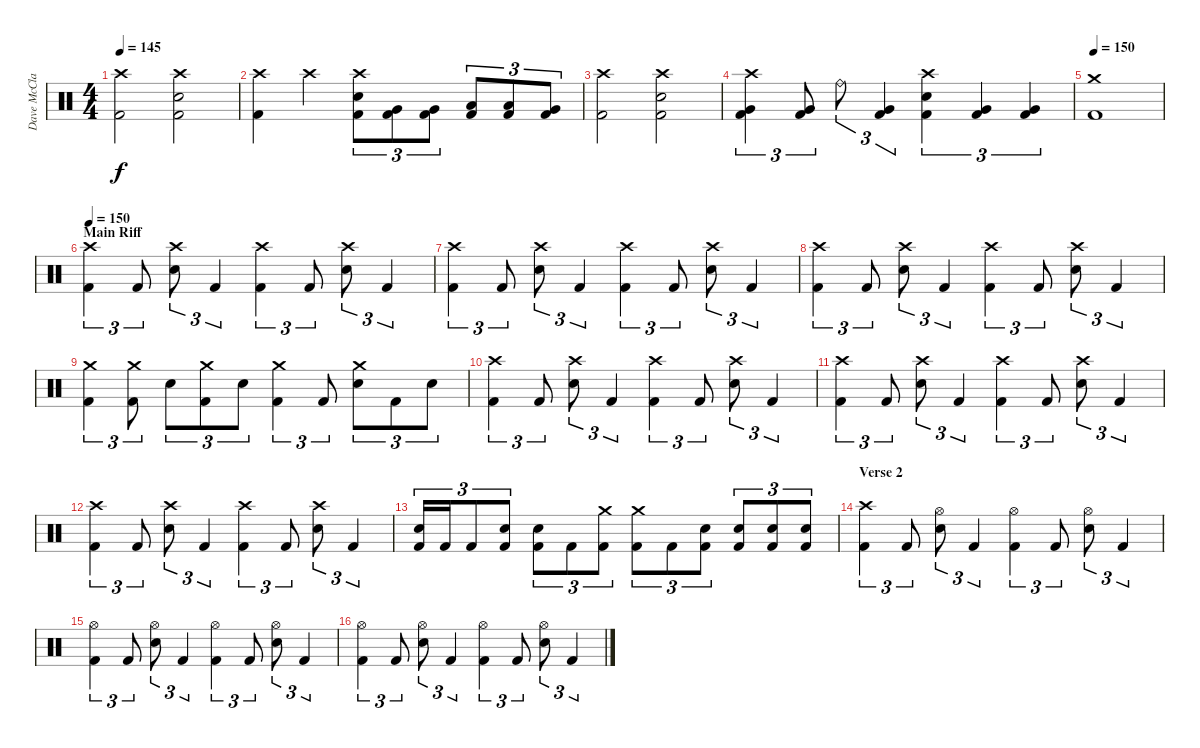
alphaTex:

\track ("Dave McClain" "Dave McCla") {instrument percussion}
\staff {score}
\articulation defaults
\ts (4 4)
\tempo 145
\clef neutral
\ks c
("Crash high (hit)" "Kick (hit) 2").2{dy f} ("Crash high (hit)" "Electric Snare (hit)" "Kick (hit) 2").2 |
("Crash high (hit)" "Kick (hit) 2").4 "Crash high (hit)".4 ("Crash high (hit)" "Electric Snare (hit)" "Kick (hit) 2").8{tu (3 2)} ("Very Low Tom (hit)" "Kick (hit) 2").8{tu (3 2)} ("Very Low Tom (hit)" "Kick (hit) 2").8{tu (3 2)} ("Low Tom (hit)" "Kick (hit) 2").8{tu (3 2)} ("Low Tom (hit)" "Kick (hit) 2").8{tu (3 2)} ("Very Low Tom (hit)" "Kick (hit) 2").8{tu (3 2)} |
("Crash high (hit)" "Kick (hit) 2").2 ("Crash high (hit)" "Electric Snare (hit)" "Kick (hit) 2").2 |
("Crash high (hit)" "Very Low Tom (hit)" "Kick (hit) 2").4{tu (3 2)} ("Very Low Tom (hit)" "Kick (hit) 2").8{tu (3 2)} "Ride (bell)".8{tu (3 2)} ("Very Low Tom (hit)" "Kick (hit) 2").4{tu (3 2)} ("Crash high (hit)" "Electric Snare (hit)" "Kick (hit) 2").4{tu (3 2)} ("Very Low Tom (hit)" "Kick (hit) 2").4{tu (3 2)} ("Very Low Tom (hit)" "Kick (hit) 2").4{tu (3 2)} |
\tempo 150
("Crash medium (hit)" "Kick (hit) 2").1 |
\section ("" "Main Riff")
\tempo 150
("Crash high (hit)" "Kick (hit) 2").4{tu (3 2)} "Kick (hit) 2".8{tu (3 2)} ("Crash high (hit)" "Electric Snare (hit)").8{tu (3 2)} "Kick (hit) 2".4{tu (3 2)} ("Crash high (hit)" "Kick (hit) 2").4{tu (3 2)} "Kick (hit) 2".8{tu (3 2)} ("Crash high (hit)" "Electric Snare (hit)").8{tu (3 2)} "Kick (hit) 2".4{tu (3 2)} |
("Crash high (hit)" "Kick (hit) 2").4{tu (3 2)} "Kick (hit) 2".8{tu (3 2)} ("Crash high (hit)" "Electric Snare (hit)").8{tu (3 2)} "Kick (hit) 2".4{tu (3 2)} ("Crash high (hit)" "Kick (hit) 2").4{tu (3 2)} "Kick (hit) 2".8{tu (3 2)} ("Crash high (hit)" "Electric Snare (hit)").8{tu (3 2)} "Kick (hit) 2".4{tu (3 2)} |
("Crash high (hit)" "Kick (hit) 2").4{tu (3 2)} "Kick (hit) 2".8{tu (3 2)} ("Crash high (hit)" "Electric Snare (hit)").8{tu (3 2)} "Kick (hit) 2".4{tu (3 2)} ("Crash high (hit)" "Kick (hit) 2").4{tu (3 2)} "Kick (hit) 2".8{tu (3 2)} ("Crash high (hit)" "Electric Snare (hit)").8{tu (3 2)} "Kick (hit) 2".4{tu (3 2)} |
("Crash medium (hit)" "Kick (hit) 2").4{tu (3 2)} ("Crash medium (hit)" "Kick (hit) 2").8{tu (3 2)} "Electric Snare (hit)".8{tu (3 2)} ("Crash medium (hit)" "Kick (hit) 2").8{tu (3 2)} "Electric Snare (hit)".8{tu (3 2)} ("Crash medium (hit)" "Kick (hit) 2").4{tu (3 2)} "Kick (hit) 2".8{tu (3 2)} ("Crash medium (hit)" "Electric Snare (hit)").8{tu (3 2)} "Kick (hit) 2".8{tu (3 2)} "Electric Snare (hit)".8{tu (3 2)} |
("Crash high (hit)" "Kick (hit) 2").4{tu (3 2)} "Kick (hit) 2".8{tu (3 2)} ("Crash high (hit)" "Electric Snare (hit)").8{tu (3 2)} "Kick (hit) 2".4{tu (3 2)} ("Crash high (hit)" "Kick (hit) 2").4{tu (3 2)} "Kick (hit) 2".8{tu (3 2)} ("Crash high (hit)" "Electric Snare (hit)").8{tu (3 2)} "Kick (hit) 2".4{tu (3 2)} |
("Crash high (hit)" "Kick (hit) 2").4{tu (3 2)} "Kick (hit) 2".8{tu (3 2)} ("Crash high (hit)" "Electric Snare (hit)").8{tu (3 2)} "Kick (hit) 2".4{tu (3 2)} ("Crash high (hit)" "Kick (hit) 2").4{tu (3 2)} "Kick (hit) 2".8{tu (3 2)} ("Crash high (hit)" "Electric Snare (hit)").8{tu (3 2)} "Kick (hit) 2".4{tu (3 2)} |
("Crash high (hit)" "Kick (hit) 2").4{tu (3 2)} "Kick (hit) 2".8{tu (3 2)} ("Crash high (hit)" "Electric Snare (hit)").8{tu (3 2)} "Kick (hit) 2".4{tu (3 2)} ("Crash high (hit)" "Kick (hit) 2").4{tu (3 2)} "Kick (hit) 2".8{tu (3 2)} ("Crash high (hit)" "Electric Snare (hit)").8{tu (3 2)} "Kick (hit) 2".4{tu (3 2)} |
("Electric Snare (hit)" "Kick (hit) 2").16{tu (3 2)} "Kick (hit) 2".16{tu (3 2)} "Kick (hit) 2".8{tu (3 2)} ("Electric Snare (hit)" "Kick (hit) 2").8{tu (3 2)} ("Electric Snare (hit)" "Kick (hit) 2").8{tu (3 2)} "Kick (hit) 2".8{tu (3 2)} ("Crash medium (hit)" "Kick (hit) 2").8{tu (3 2)} ("Crash medium (hit)" "Kick (hit) 2").8{tu (3 2)} "Kick (hit) 2".8{tu (3 2)} ("Electric Snare (hit)" "Kick (hit) 2").8{tu (3 2)} ("Electric Snare (hit)" "Kick (hit) 2").8{tu (3 2)} ("Electric Snare (hit)" "Kick (hit) 2").8{tu (3 2)} ("Electric Snare (hit)" "Kick (hit) 2").8{tu (3 2)} |
\section ("" "Verse 2")
("Crash high (hit)" "Kick (hit) 2").4{tu (3 2)} "Kick (hit) 2".8{tu (3 2)} ("Hi-Hat (open)" "Electric Snare (hit)").8{tu (3 2)} "Kick (hit) 2".4{tu (3 2)} ("Hi-Hat (open)" "Kick (hit) 2").4{tu (3 2)} "Kick (hit) 2".8{tu (3 2)} ("Hi-Hat (open)" "Electric Snare (hit)").8{tu (3 2)} "Kick (hit) 2".4{tu (3 2)} |
("Hi-Hat (open)" "Kick (hit) 2").4{tu (3 2)} "Kick (hit) 2".8{tu (3 2)} ("Hi-Hat (open)" "Electric Snare (hit)").8{tu (3 2)} "Kick (hit) 2".4{tu (3 2)} ("Hi-Hat (open)" "Kick (hit) 2").4{tu (3 2)} "Kick (hit) 2".8{tu (3 2)} ("Hi-Hat (open)" "Electric Snare (hit)").8{tu (3 2)} "Kick (hit) 2".4{tu (3 2)} |
("Hi-Hat (open)" "Kick (hit) 2").4{tu (3 2)} "Kick (hit) 2".8{tu (3 2)} ("Hi-Hat (open)" "Electric Snare (hit)").8{tu (3 2)} "Kick (hit) 2".4{tu (3 2)} ("Hi-Hat (open)" "Kick (hit) 2").4{tu (3 2)} "Kick (hit) 2".8{tu (3 2)} ("Hi-Hat (open)" "Electric Snare (hit)").8{tu (3 2)} "Kick (hit) 2".4{tu (3 2)}
